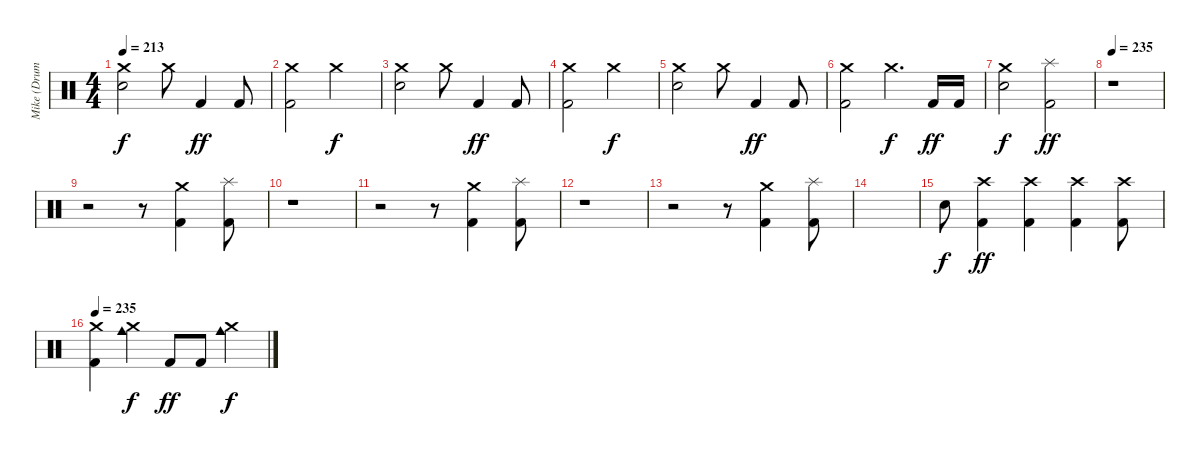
\track ("Mike (Drums)" "Mike (Drum") {instrument percussion}
\staff {score}
\articulation defaults
\ts (4 4)
\tempo 213
\clef neutral
\ks c
("Crash medium (hit)" "Electric Snare (hit)").2{dy f} "Crash medium (hit)".8 "Kick (hit) 2".4{dy ff} "Kick (hit) 2".8 |
("Crash medium (hit)" "Kick (hit) 2").2 "Crash medium (hit)".2{dy f} |
("Crash medium (hit)" "Electric Snare (hit)").2 "Crash medium (hit)".8 "Kick (hit) 2".4{dy ff} "Kick (hit) 2".8 |
("Crash medium (hit)" "Kick (hit) 2").2 "Crash medium (hit)".2{dy f} |
("Crash medium (hit)" "Electric Snare (hit)").2 "Crash medium (hit)".8 "Kick (hit) 2".4{dy ff} "Kick (hit) 2".8 |
("Crash medium (hit)" "Kick (hit) 2").2 "Crash medium (hit)".4{d dy f} "Kick (hit) 2".16{dy ff} "Kick (hit) 2".16 |
("Crash medium (hit)" "Electric Snare (hit)").2{dy f} ("Splash (hit)" "Kick (hit) 2").2{dy ff} |
\tempo 235
r.1 |
r.2 r.8 ("Crash medium (hit)" "Kick (hit) 2").4 ("Splash (hit)" "Kick (hit) 2").8 |
r.1 |
r.2 r.8 ("Crash medium (hit)" "Kick (hit) 2").4 ("Splash (hit)" "Kick (hit) 2").8 |
r.1 |
r.2 r.8 ("Crash medium (hit)" "Kick (hit) 2").4 ("Splash (hit)" "Kick (hit) 2").8 |
|
"Electric Snare (hit)".8{dy f} ("Crash high (hit)" "Kick (hit) 2").4{dy ff} ("Crash high (hit)" "Kick (hit) 2").4 ("Crash high (hit)" "Kick (hit) 2").4 ("Crash high (hit)" "Kick (hit) 2").8 |
\tempo 235
("Crash medium (hit)" "Kick (hit) 2").4 ("Crash medium (hit)" "Cowbell medium (hit)").4{dy f} "Kick (hit) 2".8{dy ff} "Kick (hit) 2".8 ("Crash medium (hit)" "Cowbell medium (hit)").4{dy f}
